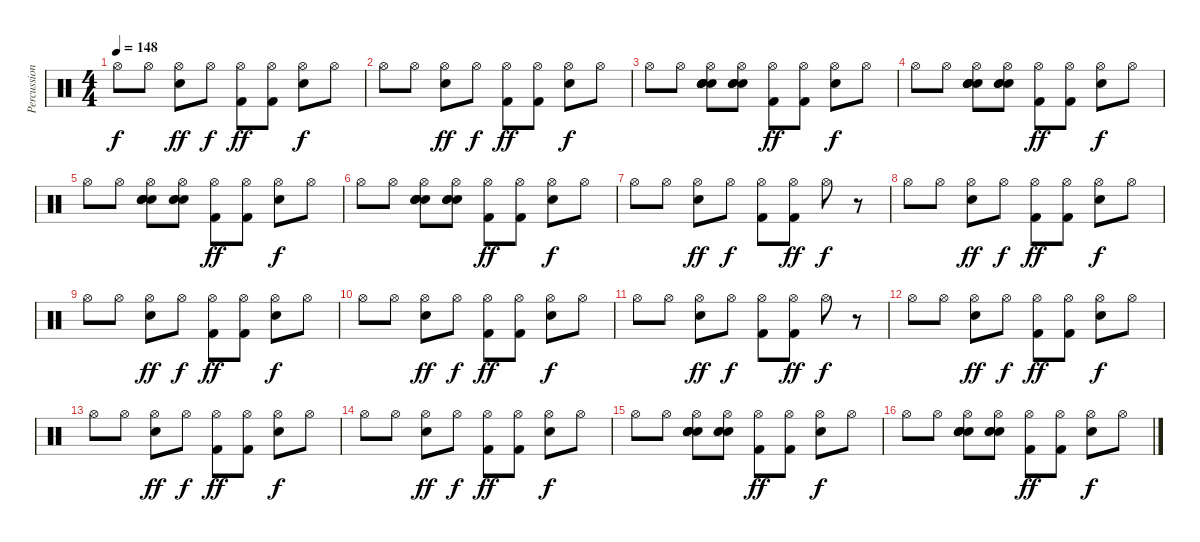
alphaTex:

\track ("Percussion" "Percussion") {instrument percussion}
\staff {score}
\articulation defaults
\ts (4 4)
\tempo 148
\clef neutral
\ks c "Hi-Hat (open)".8{dy f} "Hi-Hat (open)".8
("Electric Snare (hit)" "Hi-Hat (open)").8{dy ff} "Hi-Hat (open)".8{dy f} ("Kick (hit) 2" "Hi-Hat (open)").8{dy ff} ("Kick (hit) 2" "Hi-Hat (open)").8 ("Electric Snare (hit)" "Hi-Hat (open)").8{dy f} "Hi-Hat (open)".8 |
"Hi-Hat (open)".8 "Hi-Hat (open)".8 ("Electric Snare (hit)" "Hi-Hat (open)").8{dy ff} "Hi-Hat (open)".8{dy f} ("Kick (hit) 2" "Hi-Hat (open)").8{dy ff} ("Kick (hit) 2" "Hi-Hat (open)").8 ("Electric Snare (hit)" "Hi-Hat (open)").8{dy f} "Hi-Hat (open)".8 |
"Hi-Hat (open)".8 "Hi-Hat (open)".8 ("Electric Snare (hit)" "Hand Clap (hit)" "Hand Clap (hit)" "Hand Clap (hit)" "Hi-Hat (open)").8 ("Hand Clap (hit)" "Hand Clap (hit)" "Hand Clap (hit)" "Hi-Hat (open)").8 ("Kick (hit) 2" "Hi-Hat (open)").8{dy ff} ("Kick (hit) 2" "Hi-Hat (open)").8 ("Electric Snare (hit)" "Hi-Hat (open)").8{dy f} "Hi-Hat (open)".8 |
"Hi-Hat (open)".8 "Hi-Hat (open)".8 ("Electric Snare (hit)" "Hand Clap (hit)" "Hand Clap (hit)" "Hand Clap (hit)" "Hi-Hat (open)").8 ("Hand Clap (hit)" "Hand Clap (hit)" "Hand Clap (hit)" "Hi-Hat (open)").8 ("Kick (hit) 2" "Hi-Hat (open)").8{dy ff} ("Kick (hit) 2" "Hi-Hat (open)").8 ("Electric Snare (hit)" "Hi-Hat (open)").8{dy f} "Hi-Hat (open)".8 |
"Hi-Hat (open)".8 "Hi-Hat (open)".8 ("Electric Snare (hit)" "Hand Clap (hit)" "Hand Clap (hit)" "Hand Clap (hit)" "Hi-Hat (open)").8 ("Hand Clap (hit)" "Hand Clap (hit)" "Hand Clap (hit)" "Hi-Hat (open)").8 ("Kick (hit) 2" "Hi-Hat (open)").8{dy ff} ("Kick (hit) 2" "Hi-Hat (open)").8 ("Electric Snare (hit)" "Hi-Hat (open)").8{dy f} "Hi-Hat (open)".8 |
"Hi-Hat (open)".8 "Hi-Hat (open)".8 ("Electric Snare (hit)" "Hand Clap (hit)" "Hand Clap (hit)" "Hand Clap (hit)" "Hi-Hat (open)").8 ("Hand Clap (hit)" "Hand Clap (hit)" "Hand Clap (hit)" "Hi-Hat (open)").8 ("Kick (hit) 2" "Hi-Hat (open)").8{dy ff} ("Kick (hit) 2" "Hi-Hat (open)").8 ("Electric Snare (hit)" "Hi-Hat (open)").8{dy f} "Hi-Hat (open)".8 |
"Hi-Hat (open)".8 "Hi-Hat (open)".8 ("Electric Snare (hit)" "Hi-Hat (open)").8{dy ff} "Hi-Hat (open)".8{dy f} ("Kick (hit) 2" "Hi-Hat (open)").8 ("Kick (hit) 2" "Hi-Hat (open)").8{dy ff} "Hi-Hat (open)".8{dy f} r.8 |
"Hi-Hat (open)".8 "Hi-Hat (open)".8 ("Electric Snare (hit)" "Hi-Hat (open)").8{dy ff} "Hi-Hat (open)".8{dy f} ("Kick (hit) 2" "Hi-Hat (open)").8{dy ff} ("Kick (hit) 2" "Hi-Hat (open)").8 ("Electric Snare (hit)" "Hi-Hat (open)").8{dy f} "Hi-Hat (open)".8 |
"Hi-Hat (open)".8 "Hi-Hat (open)".8 ("Electric Snare (hit)" "Hi-Hat (open)").8{dy ff} "Hi-Hat (open)".8{dy f} ("Kick (hit) 2" "Hi-Hat (open)").8{dy ff} ("Kick (hit) 2" "Hi-Hat (open)").8 ("Electric Snare (hit)" "Hi-Hat (open)").8{dy f} "Hi-Hat (open)".8 |
"Hi-Hat (open)".8 "Hi-Hat (open)".8 ("Electric Snare (hit)" "Hi-Hat (open)").8{dy ff} "Hi-Hat (open)".8{dy f} ("Kick (hit) 2" "Hi-Hat (open)").8{dy ff} ("Kick (hit) 2" "Hi-Hat (open)").8 ("Electric Snare (hit)" "Hi-Hat (open)").8{dy f} "Hi-Hat (open)".8 |
"Hi-Hat (open)".8 "Hi-Hat (open)".8 ("Electric Snare (hit)" "Hi-Hat (open)").8{dy ff} "Hi-Hat (open)".8{dy f} ("Kick (hit) 2" "Hi-Hat (open)").8 ("Kick (hit) 2" "Hi-Hat (open)").8{dy ff} "Hi-Hat (open)".8{dy f} r.8 |
"Hi-Hat (open)".8 "Hi-Hat (open)".8 ("Electric Snare (hit)" "Hi-Hat (open)").8{dy ff} "Hi-Hat (open)".8{dy f} ("Kick (hit) 2" "Hi-Hat (open)").8{dy ff} ("Kick (hit) 2" "Hi-Hat (open)").8 ("Electric Snare (hit)" "Hi-Hat (open)").8{dy f} "Hi-Hat (open)".8 |
"Hi-Hat (open)".8 "Hi-Hat (open)".8 ("Electric Snare (hit)" "Hi-Hat (open)").8{dy ff} "Hi-Hat (open)".8{dy f} ("Kick (hit) 2" "Hi-Hat (open)").8{dy ff} ("Kick (hit) 2" "Hi-Hat (open)").8 ("Electric Snare (hit)" "Hi-Hat (open)").8{dy f} "Hi-Hat (open)".8 |
"Hi-Hat (open)".8 "Hi-Hat (open)".8 ("Electric Snare (hit)" "Hi-Hat (open)").8{dy ff} "Hi-Hat (open)".8{dy f} ("Kick (hit) 2" "Hi-Hat (open)").8{dy ff} ("Kick (hit) 2" "Hi-Hat (open)").8 ("Electric Snare (hit)" "Hi-Hat (open)").8{dy f} "Hi-Hat (open)".8 |
"Hi-Hat (open)".8 "Hi-Hat (open)".8 ("Electric Snare (hit)" "Hand Clap (hit)" "Hand Clap (hit)" "Hand Clap (hit)" "Hi-Hat (open)").8 ("Hand Clap (hit)" "Hand Clap (hit)" "Hand Clap (hit)" "Hi-Hat (open)").8 ("Kick (hit) 2" "Hi-Hat (open)").8{dy ff} ("Kick (hit) 2" "Hi-Hat (open)").8 ("Electric Snare (hit)" "Hi-Hat (open)").8{dy f} "Hi-Hat (open)".8 |
"Hi-Hat (open)".8 "Hi-Hat (open)".8 ("Electric Snare (hit)" "Hand Clap (hit)" "Hand Clap (hit)" "Hand Clap (hit)" "Hi-Hat (open)").8 ("Hand Clap (hit)" "Hand Clap (hit)" "Hand Clap (hit)" "Hi-Hat (open)").8 ("Kick (hit) 2" "Hi-Hat (open)").8{dy ff} ("Kick (hit) 2" "Hi-Hat (open)").8 ("Electric Snare (hit)" "Hi-Hat (open)").8{dy f} "Hi-Hat (open)".8
